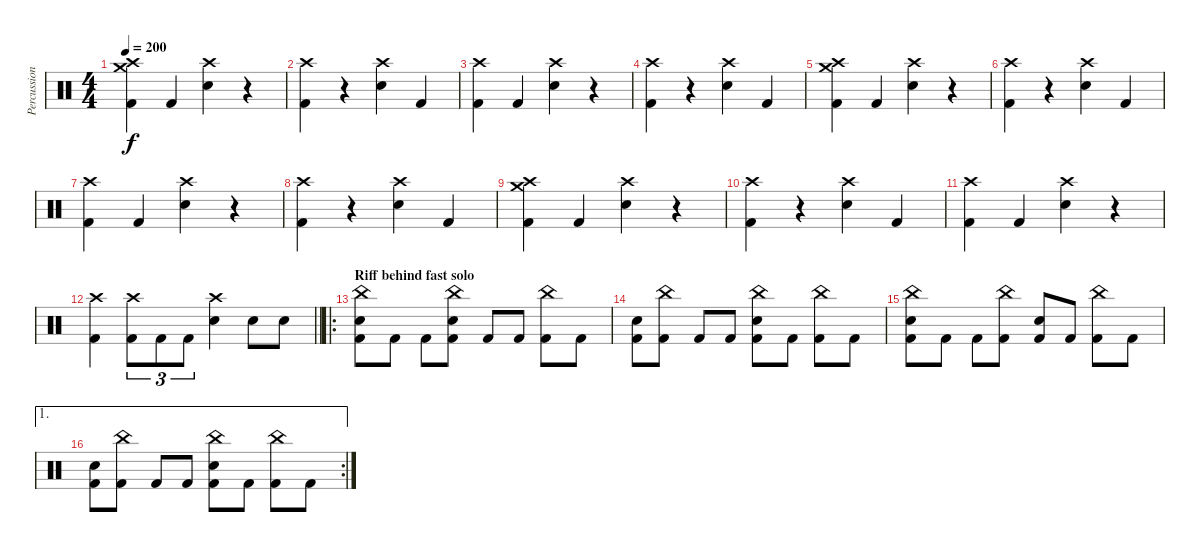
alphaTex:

\track ("Percussion" "Percussion") {instrument percussion}
\staff {score}
\articulation defaults
\ts (4 4)
\tempo 200
\clef neutral
\ks c
("Crash high (hit)" "Crash medium (hit)" "Kick (hit) 2").4{dy f} "Kick (hit) 2".4 ("Crash high (hit)" "Electric Snare (hit)").4 r.4 |
("Crash high (hit)" "Kick (hit) 2").4 r.4 ("Crash high (hit)" "Electric Snare (hit)").4 "Kick (hit) 2".4 |
("Crash high (hit)" "Kick (hit) 2").4 "Kick (hit) 2".4 ("Crash high (hit)" "Electric Snare (hit)").4 r.4 |
("Crash high (hit)" "Kick (hit) 2").4 r.4 ("Crash high (hit)" "Electric Snare (hit)").4 "Kick (hit) 2".4 |
("Crash high (hit)" "Crash medium (hit)" "Kick (hit) 2").4 "Kick (hit) 2".4 ("Crash high (hit)" "Electric Snare (hit)").4 r.4 |
("Crash high (hit)" "Kick (hit) 2").4 r.4 ("Crash high (hit)" "Electric Snare (hit)").4 "Kick (hit) 2".4 |
("Crash high (hit)" "Kick (hit) 2").4 "Kick (hit) 2".4 ("Crash high (hit)" "Electric Snare (hit)").4 r.4 |
("Crash high (hit)" "Kick (hit) 2").4 r.4 ("Crash high (hit)" "Electric Snare (hit)").4 "Kick (hit) 2".4 |
("Crash high (hit)" "Crash medium (hit)" "Kick (hit) 2").4 "Kick (hit) 2".4 ("Crash high (hit)" "Electric Snare (hit)").4 r.4 |
("Crash high (hit)" "Kick (hit) 2").4 r.4 ("Crash high (hit)" "Electric Snare (hit)").4 "Kick (hit) 2".4 |
("Crash high (hit)" "Kick (hit) 2").4 "Kick (hit) 2".4 ("Crash high (hit)" "Electric Snare (hit)").4 r.4 |
\barLineRight lightlight
("Crash high (hit)" "Kick (hit) 2").4 ("Crash high (hit)" "Kick (hit) 2").8{tu (3 2)} "Kick (hit) 2".8{tu (3 2)} "Kick (hit) 2".8{tu (3 2)} ("Crash high (hit)" "Electric Snare (hit)").4 "Electric Snare (hit)".8 "Electric Snare (hit)".8 |
\ro
\section ("" "Riff behind fast solo")
("China (hit)" "Electric Snare (hit)" "Kick (hit) 2").8 "Kick (hit) 2".8 "Kick (hit) 2".8 ("China (hit)" "Electric Snare (hit)" "Kick (hit) 2").8 "Kick (hit) 2".8 "Kick (hit) 2".8 ("China (hit)" "Kick (hit) 2").8 "Kick (hit) 2".8 |
("Electric Snare (hit)" "Kick (hit) 2").8 ("China (hit)" "Kick (hit) 2").8 "Kick (hit) 2".8 "Kick (hit) 2".8 ("China (hit)" "Electric Snare (hit)" "Kick (hit) 2").8 "Kick (hit) 2".8 ("China (hit)" "Kick (hit) 2").8 "Kick (hit) 2".8 |
("China (hit)" "Electric Snare (hit)" "Kick (hit) 2").8 "Kick (hit) 2".8 "Kick (hit) 2".8 ("China (hit)" "Kick (hit) 2").8 ("Electric Snare (hit)" "Kick (hit) 2").8 "Kick (hit) 2".8 ("China (hit)" "Kick (hit) 2").8 "Kick (hit) 2".8 |
\ae 1
\rc 2
("Electric Snare (hit)" "Kick (hit) 2").8 ("China (hit)" "Kick (hit) 2").8 "Kick (hit) 2".8 "Kick (hit) 2".8 ("China (hit)" "Electric Snare (hit)" "Kick (hit) 2").8 "Kick (hit) 2".8 ("China (hit)" "Kick (hit) 2").8 "Kick (hit) 2".8
